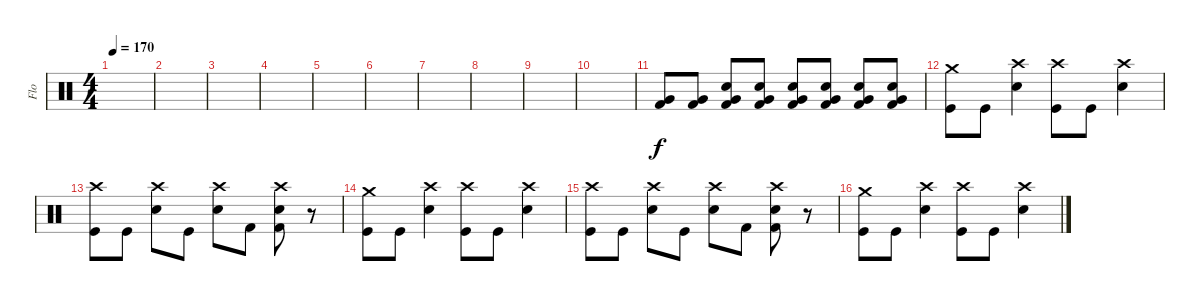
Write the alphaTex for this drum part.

\track ("Flo" "Flo") {instrument percussion}
\staff {score}
\articulation defaults
\ts (4 4)
\tempo 170
\clef neutral
\ks c
|
|
|
|
|
|
|
|
|
|
("Very Low Tom (hit)" "Kick (hit) 2").8{volume 16} ("Very Low Tom (hit)" "Kick (hit) 2").8 ("Very Low Tom (hit)" "Electric Snare (hit)" "Kick (hit) 2").8 ("Very Low Tom (hit)" "Electric Snare (hit)" "Kick (hit) 2").8 ("Very Low Tom (hit)" "Electric Snare (hit)" "Kick (hit) 2").8 ("Very Low Tom (hit)" "Electric Snare (hit)" "Kick (hit) 2").8 ("Very Low Tom (hit)" "Electric Snare (hit)" "Kick (hit) 2").8 ("Very Low Tom (hit)" "Electric Snare (hit)" "Kick (hit) 2").8 |
("Crash medium (hit)" "Kick (hit)").8 "Kick (hit)".8 ("Crash high (hit)" "Electric Snare (hit)").4 ("Crash high (hit)" "Kick (hit)").8 "Kick (hit)".8 ("Crash high (hit)" "Electric Snare (hit)").4 |
("Crash high (hit)" "Kick (hit)").8 "Kick (hit)".8 ("Crash high (hit)" "Electric Snare (hit)").8 "Kick (hit)".8 ("Crash high (hit)" "Electric Snare (hit)").8 "Kick (hit) 2".8 ("Crash high (hit)" "Electric Snare (hit)" "Kick (hit) 2").8 r.8 |
("Crash medium (hit)" "Kick (hit)").8 "Kick (hit)".8 ("Crash high (hit)" "Electric Snare (hit)").4 ("Crash high (hit)" "Kick (hit)").8 "Kick (hit)".8 ("Crash high (hit)" "Electric Snare (hit)").4 |
("Crash high (hit)" "Kick (hit)").8 "Kick (hit)".8 ("Crash high (hit)" "Electric Snare (hit)").8 "Kick (hit)".8 ("Crash high (hit)" "Electric Snare (hit)").8 "Kick (hit) 2".8 ("Crash high (hit)" "Electric Snare (hit)" "Kick (hit) 2").8 r.8 |
("Crash medium (hit)" "Kick (hit)").8 "Kick (hit)".8 ("Crash high (hit)" "Electric Snare (hit)").4 ("Crash high (hit)" "Kick (hit)").8 "Kick (hit)".8 ("Crash high (hit)" "Electric Snare (hit)").4
